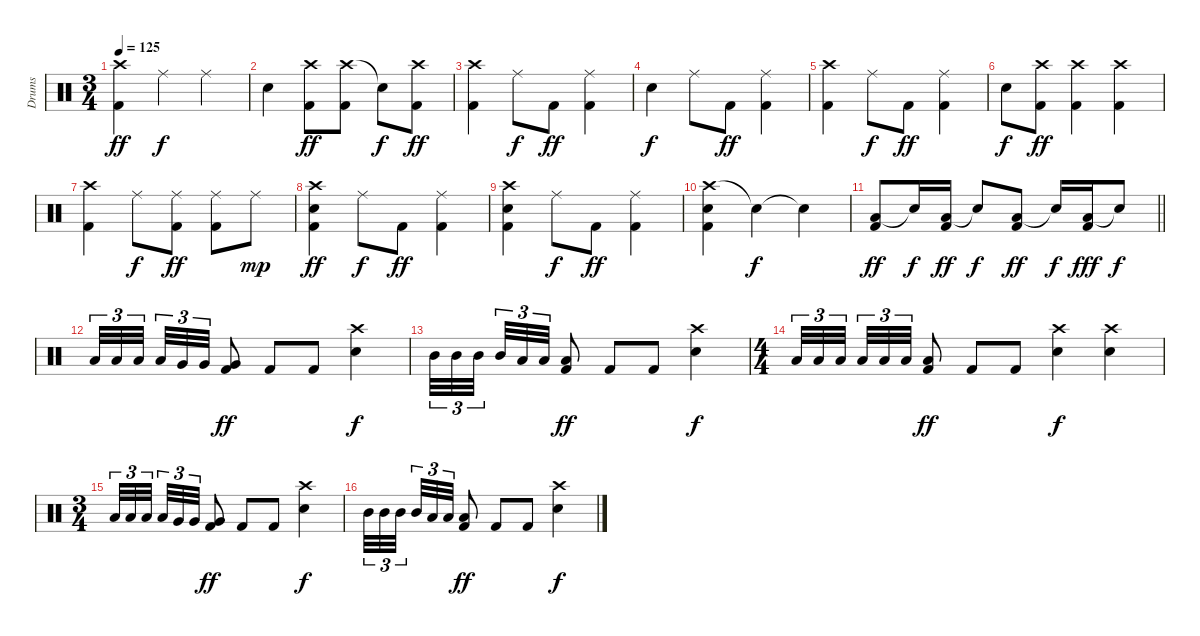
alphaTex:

\track ("Drums" "Drums") {instrument percussion}
\staff {score}
\articulation defaults
\ts (3 4)
\tempo 125
\clef neutral
\ks c
("Crash high (hit)" "Kick (hit) 2").4{dy ff} "Ride (middle)".4{dy f} "Ride (middle)".4 |
"Snare (hit) 2".4 ("Crash high (hit)" "Kick (hit) 2").8{dy ff} ("Crash high (hit)" "Kick (hit) 2").8 "Snare (hit)"{t}.8{dy f} ("Crash high (hit)" "Kick (hit) 2").8{dy ff} |
("Crash high (hit)" "Kick (hit) 2").4 "Ride (middle)".8{dy f} "Kick (hit) 2".8{dy ff} ("Ride (middle)" "Kick (hit) 2").4 |
"Snare (hit) 2".4{dy f} "Ride (middle)".8 "Kick (hit) 2".8{dy ff} ("Ride (middle)" "Kick (hit) 2").4 |
("Crash high (hit)" "Kick (hit) 2").4 "Ride (middle)".8{dy f} "Kick (hit) 2".8{dy ff} ("Ride (middle)" "Kick (hit) 2").4 |
"Snare (hit) 2".8{dy f} ("Crash high (hit)" "Kick (hit) 2").8{dy ff} ("Crash high (hit)" "Kick (hit) 2").4 ("Crash high (hit)" "Kick (hit) 2").4 |
("Crash high (hit)" "Kick (hit) 2").4 "Ride (middle)".8{dy f} ("Ride (middle)" "Kick (hit) 2").8{dy ff} ("Ride (middle)" "Kick (hit) 2").8 "Ride (middle)".8{dy mp} |
("Crash high (hit)" "Snare (hit) 2" "Kick (hit) 2").4{dy ff} "Ride (middle)".8{dy f} "Kick (hit) 2".8{dy ff} ("Ride (middle)" "Kick (hit) 2").4 |
("Crash high (hit)" "Snare (hit) 2" "Kick (hit) 2").4 "Ride (middle)".8{dy f} "Kick (hit) 2".8{dy ff} ("Ride (middle)" "Kick (hit) 2").4 |
("Crash high (hit)" "Snare (hit) 2" "Kick (hit) 2").4 "Snare (hit)"{t}.4{dy f} "Snare (hit)"{t}.4 |
\barLineRight lightlight
("Low Tom (hit)" "Kick (hit) 2").8{dy ff} "Snare (hit)"{t}.16{dy f} ("Low Tom (hit)" "Kick (hit) 2").16{dy ff} "Snare (hit)"{t}.8{dy f} ("Low Tom (hit)" "Kick (hit) 2").8{dy ff} "Snare (hit)"{t}.16{dy f} ("Low Tom (hit)" "Kick (hit) 2").16{dy fff} "Snare (hit)"{t}.8{dy f} |
\section ("" "")
"Low Floor Tom (hit)".32{tu (3 2)} "Low Floor Tom (hit)".32{tu (3 2)} "Low Floor Tom (hit)".32{tu (3 2) beam splitsecondary} "Low Floor Tom (hit)".32{tu (3 2)} "Very Low Tom (hit)".32{tu (3 2)} "Very Low Tom (hit)".32{tu (3 2)} ("Very Low Tom (hit)" "Kick (hit) 2").8{dy ff} "Kick (hit) 2".8 "Kick (hit) 2".8 ("Crash high (hit)" "Snare (hit) 2").4{dy f} |
"Mid Tom (hit)".32{tu (3 2)} "Mid Tom (hit)".32{tu (3 2)} "Mid Tom (hit)".32{tu (3 2) beam splitsecondary} "Mid Tom (hit)".32{tu (3 2)} "Low Tom (hit)".32{tu (3 2)} "Low Tom (hit)".32{tu (3 2)} ("Low Tom (hit)" "Kick (hit) 2").8{dy ff} "Kick (hit) 2".8 "Kick (hit) 2".8 ("Crash high (hit)" "Snare (hit) 2").4{dy f} |
\ts (4 4)
"Low Tom (hit)".32{tu (3 2)} "Low Tom (hit)".32{tu (3 2)} "Low Tom (hit)".32{tu (3 2) beam splitsecondary} "Low Tom (hit)".32{tu (3 2)} "Low Floor Tom (hit)".32{tu (3 2)} "Low Floor Tom (hit)".32{tu (3 2)} ("Low Floor Tom (hit)" "Kick (hit) 2").8{dy ff} "Kick (hit) 2".8 "Kick (hit) 2".8 ("Crash high (hit)" "Snare (hit) 2").4{dy f} ("Crash high (hit)" "Snare (hit) 2").4 |
\ts (3 4)
"Low Floor Tom (hit)".32{tu (3 2)} "Low Floor Tom (hit)".32{tu (3 2)} "Low Floor Tom (hit)".32{tu (3 2) beam splitsecondary} "Low Floor Tom (hit)".32{tu (3 2)} "Very Low Tom (hit)".32{tu (3 2)} "Very Low Tom (hit)".32{tu (3 2)} ("Very Low Tom (hit)" "Kick (hit) 2").8{dy ff} "Kick (hit) 2".8 "Kick (hit) 2".8 ("Crash high (hit)" "Snare (hit) 2").4{dy f} |
"Mid Tom (hit)".32{tu (3 2)} "Mid Tom (hit)".32{tu (3 2)} "Mid Tom (hit)".32{tu (3 2) beam splitsecondary} "Mid Tom (hit)".32{tu (3 2)} "Low Tom (hit)".32{tu (3 2)} "Low Tom (hit)".32{tu (3 2)} ("Low Tom (hit)" "Kick (hit) 2").8{dy ff} "Kick (hit) 2".8 "Kick (hit) 2".8 ("Crash high (hit)" "Snare (hit) 2").4{dy f}
